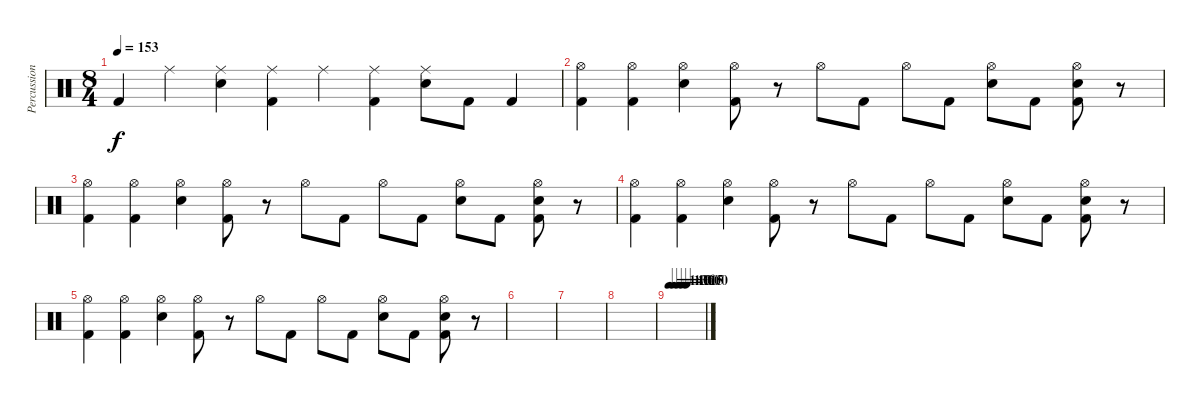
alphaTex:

\track ("Percussion" "Percussion") {instrument percussion}
\staff {score}
\articulation defaults
\ts (8 4)
\tempo 153
\clef neutral
\ks c "Kick (hit) 2".4{dy f} "Ride (middle)".4
("Ride (middle)" "Snare (hit) 2").4 ("Ride (middle)" "Kick (hit) 2").4 "Ride (middle)".4 ("Ride (middle)" "Kick (hit) 2").4 ("Ride (middle)" "Snare (hit) 2").8 "Kick (hit) 2".8 "Kick (hit) 2".4 |
("Hi-Hat (open)" "Kick (hit) 2").4 ("Hi-Hat (open)" "Kick (hit) 2").4 ("Hi-Hat (open)" "Snare (hit) 2").4 ("Hi-Hat (open)" "Kick (hit) 2").8 r.8 "Hi-Hat (open)".8 "Kick (hit) 2".8 "Hi-Hat (open)".8 "Kick (hit) 2".8 ("Hi-Hat (open)" "Snare (hit) 2").8 "Kick (hit) 2".8 ("Hi-Hat (open)" "Snare (hit) 2" "Kick (hit) 2").8 r.8 |
("Hi-Hat (open)" "Kick (hit) 2").4 ("Hi-Hat (open)" "Kick (hit) 2").4 ("Hi-Hat (open)" "Snare (hit) 2").4 ("Hi-Hat (open)" "Kick (hit) 2").8 r.8 "Hi-Hat (open)".8 "Kick (hit) 2".8 "Hi-Hat (open)".8 "Kick (hit) 2".8 ("Hi-Hat (open)" "Snare (hit) 2").8 "Kick (hit) 2".8 ("Hi-Hat (open)" "Snare (hit) 2" "Kick (hit) 2").8 r.8 |
("Hi-Hat (open)" "Kick (hit) 2").4 ("Hi-Hat (open)" "Kick (hit) 2").4 ("Hi-Hat (open)" "Snare (hit) 2").4 ("Hi-Hat (open)" "Kick (hit) 2").8 r.8 "Hi-Hat (open)".8 "Kick (hit) 2".8 "Hi-Hat (open)".8 "Kick (hit) 2".8 ("Hi-Hat (open)" "Snare (hit) 2").8 "Kick (hit) 2".8 ("Hi-Hat (open)" "Snare (hit) 2" "Kick (hit) 2").8 r.8 |
("Hi-Hat (open)" "Kick (hit) 2").4 ("Hi-Hat (open)" "Kick (hit) 2").4 ("Hi-Hat (open)" "Snare (hit) 2").4 ("Hi-Hat (open)" "Kick (hit) 2").8 r.8 "Hi-Hat (open)".8 "Kick (hit) 2".8 "Hi-Hat (open)".8 "Kick (hit) 2".8 ("Hi-Hat (open)" "Snare (hit) 2").8 "Kick (hit) 2".8 ("Hi-Hat (open)" "Snare (hit) 2" "Kick (hit) 2").8 r.8 |
|
|
|
\tempo 140
\tempo (136 0.125)
\tempo (130 0.25)
\tempo (115 0.375)
\tempo (100 0.5)
